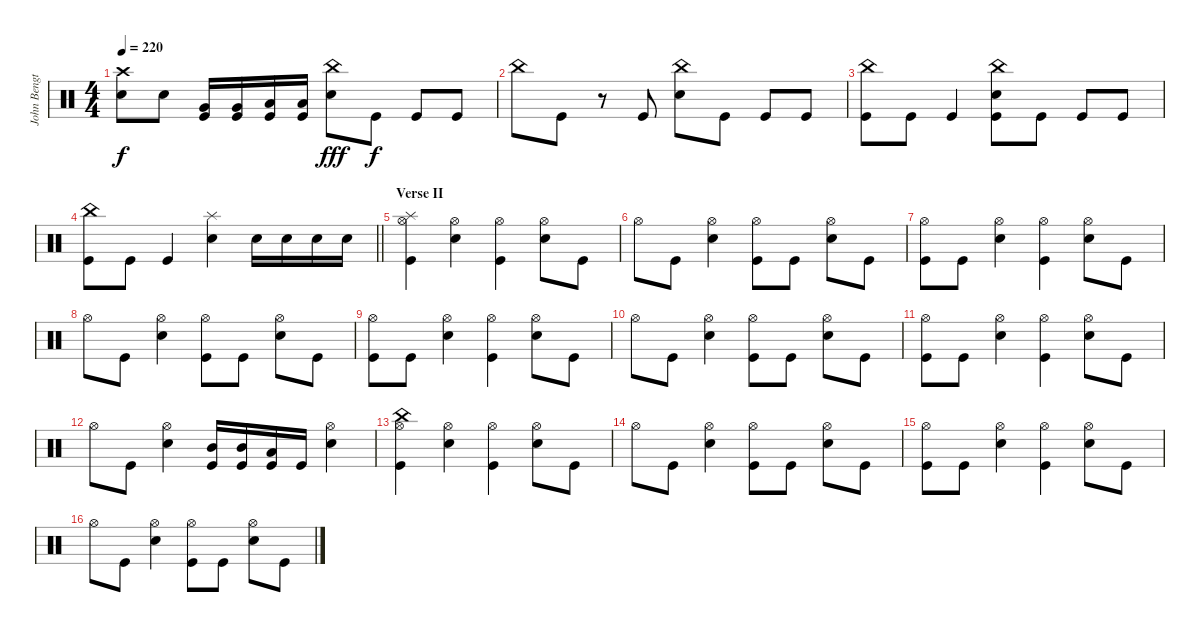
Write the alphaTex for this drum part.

\track ("John Bengtsson" "John Bengt") {instrument percussion}
\staff {score}
\articulation defaults
\ts (4 4)
\tempo 220
\clef neutral
\ks c
("Crash high (hit)" "Snare (hit) 2").8{dy f} "Snare (hit) 2".8 ("Very Low Tom (hit)" "Kick (hit)").16 ("Very Low Tom (hit)" "Kick (hit)").16 ("Low Floor Tom (hit)" "Kick (hit)").16 ("Low Floor Tom (hit)" "Kick (hit)").16 ("China (hit)" "Snare (hit) 2").8{dy fff} "Kick (hit)".8{dy f} "Kick (hit)".8 "Kick (hit)".8 |
"China (hit)".8 "Kick (hit)".8 r.8 "Kick (hit)".8 ("China (hit)" "Snare (hit) 2").8 "Kick (hit)".8 "Kick (hit)".8 "Kick (hit)".8 |
("China (hit)" "Kick (hit)").8 "Kick (hit)".8 "Kick (hit)".4 ("China (hit)" "Snare (hit) 2" "Kick (hit)").8 "Kick (hit)".8 "Kick (hit)".8 "Kick (hit)".8 |
\barLineRight lightlight
("China (hit)" "Kick (hit)").8 "Kick (hit)".8 "Kick (hit)".4 ("Splash (hit)" "Snare (hit) 2").4 "Snare (hit) 2".16 "Snare (hit) 2".16 "Snare (hit) 2".16 "Snare (hit) 2".16 |
\section ("" "Verse II")
("Splash (hit)" "Hi-Hat (open)" "Kick (hit)").4 ("Hi-Hat (open)" "Snare (hit) 2").4 ("Hi-Hat (open)" "Kick (hit)").4 ("Hi-Hat (open)" "Snare (hit) 2").8 "Kick (hit)".8 |
"Hi-Hat (open)".8 "Kick (hit)".8 ("Hi-Hat (open)" "Snare (hit) 2").4 ("Hi-Hat (open)" "Kick (hit)").8 "Kick (hit)".8 ("Hi-Hat (open)" "Snare (hit) 2").8 "Kick (hit)".8 |
("Hi-Hat (open)" "Kick (hit)").8 "Kick (hit)".8 ("Hi-Hat (open)" "Snare (hit) 2").4 ("Hi-Hat (open)" "Kick (hit)").4 ("Hi-Hat (open)" "Snare (hit) 2").8 "Kick (hit)".8 |
"Hi-Hat (open)".8 "Kick (hit)".8 ("Hi-Hat (open)" "Snare (hit) 2").4 ("Hi-Hat (open)" "Kick (hit)").8 "Kick (hit)".8 ("Hi-Hat (open)" "Snare (hit) 2").8 "Kick (hit)".8 |
("Hi-Hat (open)" "Kick (hit)").8 "Kick (hit)".8 ("Hi-Hat (open)" "Snare (hit) 2").4 ("Hi-Hat (open)" "Kick (hit)").4 ("Hi-Hat (open)" "Snare (hit) 2").8 "Kick (hit)".8 |
"Hi-Hat (open)".8 "Kick (hit)".8 ("Hi-Hat (open)" "Snare (hit) 2").4 ("Hi-Hat (open)" "Kick (hit)").8 "Kick (hit)".8 ("Hi-Hat (open)" "Snare (hit) 2").8 "Kick (hit)".8 |
("Hi-Hat (open)" "Kick (hit)").8 "Kick (hit)".8 ("Hi-Hat (open)" "Snare (hit) 2").4 ("Hi-Hat (open)" "Kick (hit)").4 ("Hi-Hat (open)" "Snare (hit) 2").8 "Kick (hit)".8 |
"Hi-Hat (open)".8 "Kick (hit)".8 ("Hi-Hat (open)" "Snare (hit) 2").4 ("Mid Tom (hit)" "Kick (hit)").16 ("Mid Tom (hit)" "Kick (hit)").16 ("Low Tom (hit)" "Kick (hit)").16 "Kick (hit)".16 ("Hi-Hat (open)" "Snare (hit) 2").4 |
("China (hit)" "Hi-Hat (open)" "Kick (hit)").4 ("Hi-Hat (open)" "Snare (hit) 2").4 ("Hi-Hat (open)" "Kick (hit)").4 ("Hi-Hat (open)" "Snare (hit) 2").8 "Kick (hit)".8 |
"Hi-Hat (open)".8 "Kick (hit)".8 ("Hi-Hat (open)" "Snare (hit) 2").4 ("Hi-Hat (open)" "Kick (hit)").8 "Kick (hit)".8 ("Hi-Hat (open)" "Snare (hit) 2").8 "Kick (hit)".8 |
("Hi-Hat (open)" "Kick (hit)").8 "Kick (hit)".8 ("Hi-Hat (open)" "Snare (hit) 2").4 ("Hi-Hat (open)" "Kick (hit)").4 ("Hi-Hat (open)" "Snare (hit) 2").8 "Kick (hit)".8 |
"Hi-Hat (open)".8 "Kick (hit)".8 ("Hi-Hat (open)" "Snare (hit) 2").4 ("Hi-Hat (open)" "Kick (hit)").8 "Kick (hit)".8 ("Hi-Hat (open)" "Snare (hit) 2").8 "Kick (hit)".8
